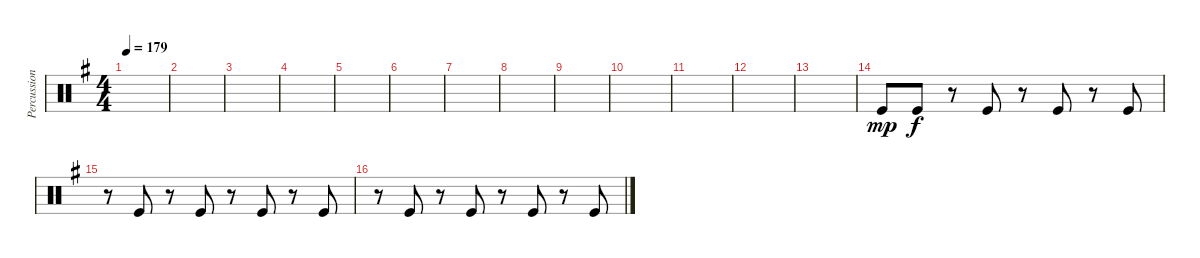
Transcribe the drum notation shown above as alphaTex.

\track ("Percussion 02" "Percussion") {instrument percussion}
\staff {score}
\articulation defaults
\ts (4 4)
\tempo 179
\clef neutral
\ks g
|
|
|
|
|
|
|
|
|
|
|
|
|
"Kick (hit)".8{dy mp} "Kick (hit)".8{dy f} r.8 "Kick (hit)".8 r.8 "Kick (hit)".8 r.8 "Kick (hit)".8 |
r.8 "Kick (hit)".8 r.8 "Kick (hit)".8 r.8 "Kick (hit)".8 r.8 "Kick (hit)".8 |
r.8 "Kick (hit)".8 r.8 "Kick (hit)".8 r.8 "Kick (hit)".8 r.8 "Kick (hit)".8
